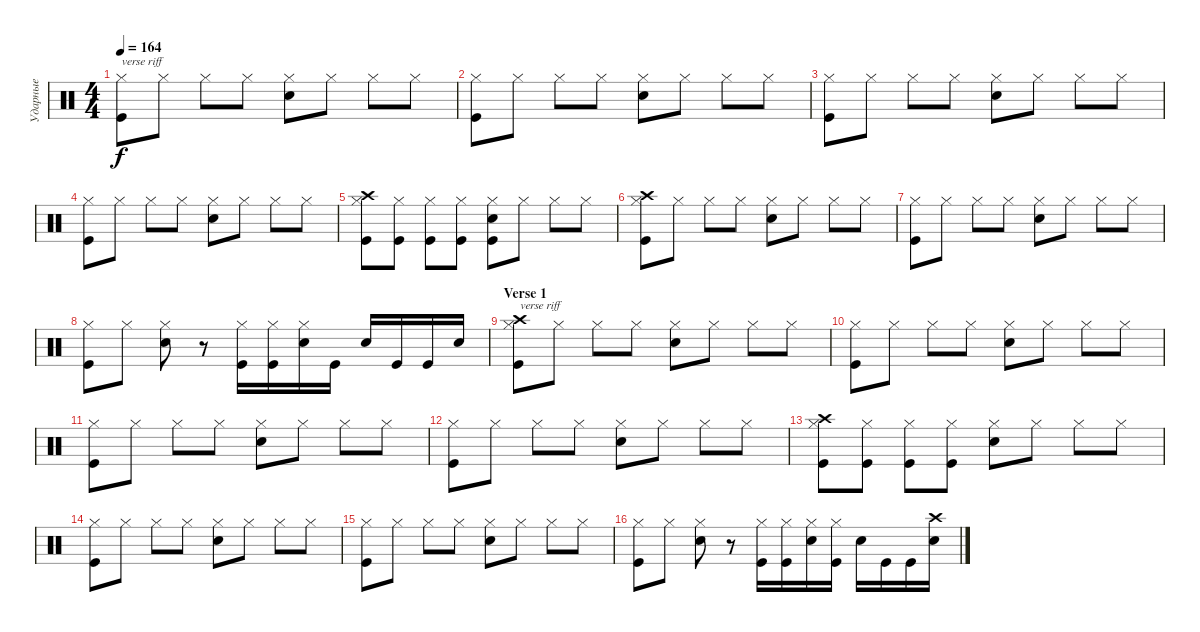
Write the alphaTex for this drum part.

\track ("Ударные" "Ударные") {instrument percussion}
\staff {score}
\articulation defaults
\ts (4 4)
\tempo 164
\clef neutral
\ks c
("Hi-Hat (closed)" "Kick (hit)").8{txt "verse riff" dy f} "Hi-Hat (closed)".8 "Hi-Hat (closed)".8 "Hi-Hat (closed)".8 ("Hi-Hat (closed)" "Snare (hit) 2").8 "Hi-Hat (closed)".8 "Hi-Hat (closed)".8 "Hi-Hat (closed)".8 |
("Hi-Hat (closed)" "Kick (hit)").8 "Hi-Hat (closed)".8 "Hi-Hat (closed)".8 "Hi-Hat (closed)".8 ("Hi-Hat (closed)" "Snare (hit) 2").8 "Hi-Hat (closed)".8 "Hi-Hat (closed)".8 "Hi-Hat (closed)".8 |
("Hi-Hat (closed)" "Kick (hit)").8 "Hi-Hat (closed)".8 "Hi-Hat (closed)".8 "Hi-Hat (closed)".8 ("Hi-Hat (closed)" "Snare (hit) 2").8 "Hi-Hat (closed)".8 "Hi-Hat (closed)".8 "Hi-Hat (closed)".8 |
("Hi-Hat (closed)" "Kick (hit)").8 "Hi-Hat (closed)".8 "Hi-Hat (closed)".8 "Hi-Hat (closed)".8 ("Hi-Hat (closed)" "Snare (hit) 2").8 "Hi-Hat (closed)".8 "Hi-Hat (closed)".8 "Hi-Hat (closed)".8 |
("Hi-Hat (closed)" "Crash high (hit)" "Kick (hit)").8 ("Hi-Hat (closed)" "Kick (hit)").8 ("Hi-Hat (closed)" "Kick (hit)").8 ("Hi-Hat (closed)" "Kick (hit)").8 ("Hi-Hat (closed)" "Kick (hit)" "Snare (hit) 2").8 "Hi-Hat (closed)".8 "Hi-Hat (closed)".8 "Hi-Hat (closed)".8 |
("Hi-Hat (closed)" "Crash high (hit)" "Kick (hit)").8 "Hi-Hat (closed)".8 "Hi-Hat (closed)".8 "Hi-Hat (closed)".8 ("Hi-Hat (closed)" "Snare (hit) 2").8 "Hi-Hat (closed)".8 "Hi-Hat (closed)".8 "Hi-Hat (closed)".8 |
("Hi-Hat (closed)" "Kick (hit)").8 "Hi-Hat (closed)".8 "Hi-Hat (closed)".8 "Hi-Hat (closed)".8 ("Hi-Hat (closed)" "Snare (hit) 2").8 "Hi-Hat (closed)".8 "Hi-Hat (closed)".8 "Hi-Hat (closed)".8 |
("Hi-Hat (closed)" "Kick (hit)").8 "Hi-Hat (closed)".8 ("Hi-Hat (closed)" "Snare (hit) 2").8 r.8 ("Hi-Hat (closed)" "Kick (hit)").16 ("Hi-Hat (closed)" "Kick (hit)").16 ("Hi-Hat (closed)" "Snare (hit) 2").16 "Kick (hit)".16 "Snare (hit) 2".16 "Kick (hit)".16 "Kick (hit)".16 "Snare (hit) 2".16 |
\section ("" "Verse 1")
("Hi-Hat (closed)" "Crash high (hit)" "Kick (hit)").8{txt "verse riff"} "Hi-Hat (closed)".8 "Hi-Hat (closed)".8 "Hi-Hat (closed)".8 ("Hi-Hat (closed)" "Snare (hit) 2").8 "Hi-Hat (closed)".8 "Hi-Hat (closed)".8 "Hi-Hat (closed)".8 |
("Hi-Hat (closed)" "Kick (hit)").8 "Hi-Hat (closed)".8 "Hi-Hat (closed)".8 "Hi-Hat (closed)".8 ("Hi-Hat (closed)" "Snare (hit) 2").8 "Hi-Hat (closed)".8 "Hi-Hat (closed)".8 "Hi-Hat (closed)".8 |
("Hi-Hat (closed)" "Kick (hit)").8 "Hi-Hat (closed)".8 "Hi-Hat (closed)".8 "Hi-Hat (closed)".8 ("Hi-Hat (closed)" "Snare (hit) 2").8 "Hi-Hat (closed)".8 "Hi-Hat (closed)".8 "Hi-Hat (closed)".8 |
("Hi-Hat (closed)" "Kick (hit)").8 "Hi-Hat (closed)".8 "Hi-Hat (closed)".8 "Hi-Hat (closed)".8 ("Hi-Hat (closed)" "Snare (hit) 2").8 "Hi-Hat (closed)".8 "Hi-Hat (closed)".8 "Hi-Hat (closed)".8 |
("Hi-Hat (closed)" "Crash high (hit)" "Kick (hit)").8 ("Hi-Hat (closed)" "Kick (hit)").8 ("Hi-Hat (closed)" "Kick (hit)").8 ("Hi-Hat (closed)" "Kick (hit)").8 ("Hi-Hat (closed)" "Snare (hit) 2").8 "Hi-Hat (closed)".8 "Hi-Hat (closed)".8 "Hi-Hat (closed)".8 |
("Hi-Hat (closed)" "Kick (hit)").8 "Hi-Hat (closed)".8 "Hi-Hat (closed)".8 "Hi-Hat (closed)".8 ("Hi-Hat (closed)" "Snare (hit) 2").8 "Hi-Hat (closed)".8 "Hi-Hat (closed)".8 "Hi-Hat (closed)".8 |
("Hi-Hat (closed)" "Kick (hit)").8 "Hi-Hat (closed)".8 "Hi-Hat (closed)".8 "Hi-Hat (closed)".8 ("Hi-Hat (closed)" "Snare (hit) 2").8 "Hi-Hat (closed)".8 "Hi-Hat (closed)".8 "Hi-Hat (closed)".8 |
("Hi-Hat (closed)" "Kick (hit)").8 "Hi-Hat (closed)".8 ("Hi-Hat (closed)" "Snare (hit) 2").8 r.8 ("Hi-Hat (closed)" "Kick (hit)").16 ("Hi-Hat (closed)" "Kick (hit)").16 ("Hi-Hat (closed)" "Snare (hit) 2").16 ("Hi-Hat (closed)" "Kick (hit)").16 "Snare (hit) 2".16 "Kick (hit)".16 "Kick (hit)".16 ("Crash high (hit)" "Snare (hit) 2").16
